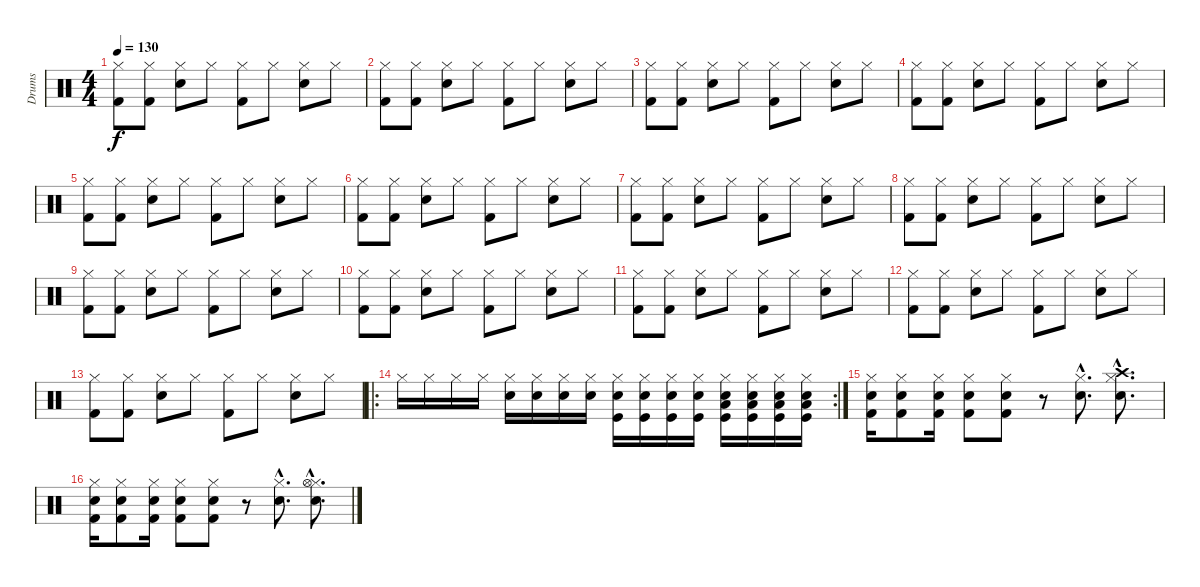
\track ("Drums" "Drums") {instrument percussion}
\staff {score}
\articulation defaults
\ts (4 4)
\tempo 130
\clef neutral
\ks c
("Hi-Hat (closed)" "Kick (hit) 2").8{dy f} ("Hi-Hat (closed)" "Kick (hit) 2").8 ("Hi-Hat (closed)" "Snare (hit) 2").8 "Hi-Hat (closed)".8 ("Hi-Hat (closed)" "Kick (hit) 2").8 "Hi-Hat (closed)".8 ("Hi-Hat (closed)" "Snare (hit) 2").8 "Hi-Hat (closed)".8 |
("Hi-Hat (closed)" "Kick (hit) 2").8 ("Hi-Hat (closed)" "Kick (hit) 2").8 ("Hi-Hat (closed)" "Snare (hit) 2").8 "Hi-Hat (closed)".8 ("Hi-Hat (closed)" "Kick (hit) 2").8 "Hi-Hat (closed)".8 ("Hi-Hat (closed)" "Snare (hit) 2").8 "Hi-Hat (closed)".8 |
("Hi-Hat (closed)" "Kick (hit) 2").8 ("Hi-Hat (closed)" "Kick (hit) 2").8 ("Hi-Hat (closed)" "Snare (hit) 2").8 "Hi-Hat (closed)".8 ("Hi-Hat (closed)" "Kick (hit) 2").8 "Hi-Hat (closed)".8 ("Hi-Hat (closed)" "Snare (hit) 2").8 "Hi-Hat (closed)".8 |
("Hi-Hat (closed)" "Kick (hit) 2").8 ("Hi-Hat (closed)" "Kick (hit) 2").8 ("Hi-Hat (closed)" "Snare (hit) 2").8 "Hi-Hat (closed)".8 ("Hi-Hat (closed)" "Kick (hit) 2").8 "Hi-Hat (closed)".8 ("Hi-Hat (closed)" "Snare (hit) 2").8 "Hi-Hat (closed)".8 |
("Hi-Hat (closed)" "Kick (hit) 2").8 ("Hi-Hat (closed)" "Kick (hit) 2").8 ("Hi-Hat (closed)" "Snare (hit) 2").8 "Hi-Hat (closed)".8 ("Hi-Hat (closed)" "Kick (hit) 2").8 "Hi-Hat (closed)".8 ("Hi-Hat (closed)" "Snare (hit) 2").8 "Hi-Hat (closed)".8 |
("Hi-Hat (closed)" "Kick (hit) 2").8 ("Hi-Hat (closed)" "Kick (hit) 2").8 ("Hi-Hat (closed)" "Snare (hit) 2").8 "Hi-Hat (closed)".8 ("Hi-Hat (closed)" "Kick (hit) 2").8 "Hi-Hat (closed)".8 ("Hi-Hat (closed)" "Snare (hit) 2").8 "Hi-Hat (closed)".8 |
("Hi-Hat (closed)" "Kick (hit) 2").8 ("Hi-Hat (closed)" "Kick (hit) 2").8 ("Hi-Hat (closed)" "Snare (hit) 2").8 "Hi-Hat (closed)".8 ("Hi-Hat (closed)" "Kick (hit) 2").8 "Hi-Hat (closed)".8 ("Hi-Hat (closed)" "Snare (hit) 2").8 "Hi-Hat (closed)".8 |
("Hi-Hat (closed)" "Kick (hit) 2").8 ("Hi-Hat (closed)" "Kick (hit) 2").8 ("Hi-Hat (closed)" "Snare (hit) 2").8 "Hi-Hat (closed)".8 ("Hi-Hat (closed)" "Kick (hit) 2").8 "Hi-Hat (closed)".8 ("Hi-Hat (closed)" "Snare (hit) 2").8 "Hi-Hat (closed)".8 |
("Hi-Hat (closed)" "Kick (hit) 2").8 ("Hi-Hat (closed)" "Kick (hit) 2").8 ("Hi-Hat (closed)" "Snare (hit) 2").8 "Hi-Hat (closed)".8 ("Hi-Hat (closed)" "Kick (hit) 2").8 "Hi-Hat (closed)".8 ("Hi-Hat (closed)" "Snare (hit) 2").8 "Hi-Hat (closed)".8 |
("Hi-Hat (closed)" "Kick (hit) 2").8 ("Hi-Hat (closed)" "Kick (hit) 2").8 ("Hi-Hat (closed)" "Snare (hit) 2").8 "Hi-Hat (closed)".8 ("Hi-Hat (closed)" "Kick (hit) 2").8 "Hi-Hat (closed)".8 ("Hi-Hat (closed)" "Snare (hit) 2").8 "Hi-Hat (closed)".8 |
("Hi-Hat (closed)" "Kick (hit) 2").8 ("Hi-Hat (closed)" "Kick (hit) 2").8 ("Hi-Hat (closed)" "Snare (hit) 2").8 "Hi-Hat (closed)".8 ("Hi-Hat (closed)" "Kick (hit) 2").8 "Hi-Hat (closed)".8 ("Hi-Hat (closed)" "Snare (hit) 2").8 "Hi-Hat (closed)".8 |
("Hi-Hat (closed)" "Kick (hit) 2").8 ("Hi-Hat (closed)" "Kick (hit) 2").8 ("Hi-Hat (closed)" "Snare (hit) 2").8 "Hi-Hat (closed)".8 ("Hi-Hat (closed)" "Kick (hit) 2").8 "Hi-Hat (closed)".8 ("Hi-Hat (closed)" "Snare (hit) 2").8 "Hi-Hat (closed)".8 |
("Hi-Hat (closed)" "Kick (hit) 2").8 ("Hi-Hat (closed)" "Kick (hit) 2").8 ("Hi-Hat (closed)" "Snare (hit) 2").8 "Hi-Hat (closed)".8 ("Hi-Hat (closed)" "Kick (hit) 2").8 "Hi-Hat (closed)".8 ("Hi-Hat (closed)" "Snare (hit) 2").8 "Hi-Hat (closed)".8 |
\ro
\rc 2 "Hi-Hat (closed)".16 "Hi-Hat (closed)".16 "Hi-Hat (closed)".16 "Hi-Hat (closed)".16
("Hi-Hat (closed)" "Snare (hit) 2").16 ("Hi-Hat (closed)" "Snare (hit) 2").16 ("Hi-Hat (closed)" "Snare (hit) 2").16 ("Hi-Hat (closed)" "Snare (hit) 2").16 ("Hi-Hat (closed)" "Snare (hit) 2" "Kick (hit)").16 ("Hi-Hat (closed)" "Snare (hit) 2" "Kick (hit)").16 ("Hi-Hat (closed)" "Snare (hit) 2" "Kick (hit)").16 ("Hi-Hat (closed)" "Snare (hit) 2" "Kick (hit)").16 ("Hi-Hat (closed)" "Snare (hit) 2" "Kick (hit)" "Low Floor Tom (hit)").16 ("Hi-Hat (closed)" "Snare (hit) 2" "Kick (hit)" "Low Floor Tom (hit)").16 ("Hi-Hat (closed)" "Snare (hit) 2" "Kick (hit)" "Low Floor Tom (hit)").16 ("Hi-Hat (closed)" "Snare (hit) 2" "Kick (hit)" "Low Floor Tom (hit)").16 |
("Hi-Hat (closed)" "Snare (hit) 2" "Kick (hit) 2").16 ("Hi-Hat (closed)" "Snare (hit) 2" "Kick (hit) 2").8 ("Hi-Hat (closed)" "Snare (hit) 2" "Kick (hit) 2").16 ("Hi-Hat (closed)" "Snare (hit) 2" "Kick (hit) 2").8 ("Hi-Hat (closed)" "Snare (hit) 2" "Kick (hit) 2").8 r.8 ("Hi-Hat (closed)"{hac} "Snare (hit) 2"{hac}).8{d} ("Hi-Hat (closed)"{hac} "Crash high (hit)"{hac} "Snare (hit) 2"{hac}).8{d} |
("Hi-Hat (closed)" "Snare (hit) 2" "Kick (hit) 2").16 ("Hi-Hat (closed)" "Snare (hit) 2" "Kick (hit) 2").8 ("Hi-Hat (closed)" "Snare (hit) 2" "Kick (hit) 2").16 ("Hi-Hat (closed)" "Snare (hit) 2" "Kick (hit) 2").8 ("Hi-Hat (closed)" "Snare (hit) 2" "Kick (hit) 2").8 r.8 ("Hi-Hat (closed)"{hac} "Snare (hit) 2"{hac}).8{d} ("Hi-Hat (closed)"{hac} "Hi-Hat (open)"{hac} "Snare (hit) 2"{hac}).8{d}
